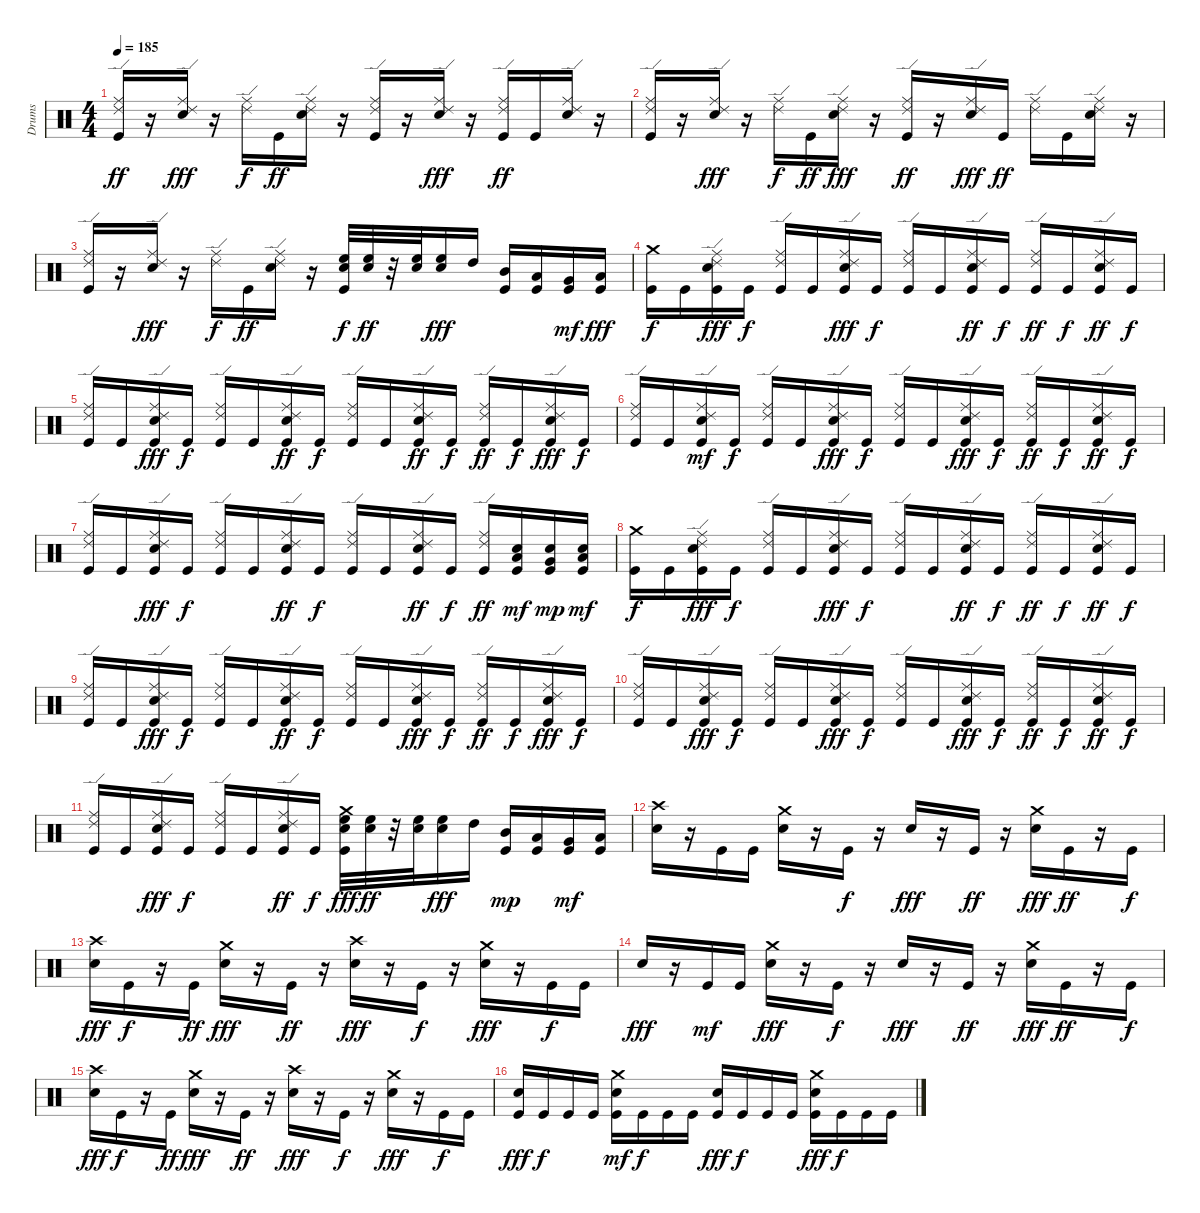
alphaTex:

\track ("Drums" "Drums") {instrument percussion}
\staff {score}
\articulation defaults
\ts (4 4)
\tempo 185
\clef neutral
\ks c
("Ride (edge) 2" "Ride (middle)" "Kick (hit)").16{dy ff} r.16 ("Electric Snare (hit)" "Ride (middle)" "Ride (edge) 2").16{dy fff} r.16 ("Ride (edge) 2" "Ride (middle)").16{dy f} "Kick (hit)".16{dy ff} ("Ride (edge) 2" "Electric Snare (hit)" "Ride (middle)").16 r.16 ("Ride (middle)" "Kick (hit)" "Ride (edge) 2").16 r.16 ("Ride (middle)" "Ride (edge) 2" "Electric Snare (hit)").16{dy fff} r.16 ("Kick (hit)" "Ride (edge) 2" "Ride (middle)").16{dy ff} "Kick (hit)".16 ("Electric Snare (hit)" "Ride (edge) 2" "Ride (middle)").16 r.16 |
("Kick (hit)" "Ride (edge) 2" "Ride (middle)").16 r.16 ("Ride (edge) 2" "Ride (middle)" "Electric Snare (hit)").16{dy fff} r.16 ("Ride (edge) 2" "Ride (middle)").16{dy f} "Kick (hit)".16{dy ff} ("Ride (middle)" "Ride (edge) 2" "Electric Snare (hit)").16{dy fff} r.16 ("Ride (middle)" "Ride (edge) 2" "Kick (hit)").16{dy ff} r.16 ("Ride (middle)" "Ride (edge) 2" "Electric Snare (hit)").16{dy fff} "Kick (hit)".16{dy ff} ("Ride (middle)" "Ride (edge) 2").16 "Kick (hit)".16 ("Ride (edge) 2" "Electric Snare (hit)" "Ride (middle)").16 r.16 |
("Kick (hit)" "Ride (middle)" "Ride (edge) 2").16 r.16 ("Electric Snare (hit)" "Ride (middle)" "Ride (edge) 2").16{dy fff} r.16 ("Ride (edge) 2" "Ride (middle)").16{dy f} "Kick (hit)".16{dy ff} ("Ride (middle)" "Electric Snare (hit)" "Ride (edge) 2").16 r.16 ("Electric Snare (hit)" "High Floor Tom (hit)" "Kick (hit)").32{dy f} ("Electric Snare (hit)" "High Floor Tom (hit)").32{dy ff} r.32 ("Electric Snare (hit)" "High Floor Tom (hit)").32 ("Electric Snare (hit)" "High Floor Tom (hit)").16{dy fff} "High Tom (hit)".16 ("Kick (hit)" "Mid Tom (hit)").16 ("Kick (hit)" "Low Tom (hit)").16 ("Very Low Tom (hit)" "Kick (hit)").16{dy mf} ("Kick (hit)" "Low Floor Tom (hit)").16{dy fff} |
("Kick (hit)" "Crash medium (hit)").16{dy f} "Kick (hit)".16 ("Ride (edge) 2" "Ride (middle)" "Electric Snare (hit)" "Kick (hit)").16{dy fff} "Kick (hit)".16{dy f} ("Ride (middle)" "Ride (edge) 2" "Kick (hit)").16 "Kick (hit)".16 ("Kick (hit)" "Ride (middle)" "Ride (edge) 2" "Electric Snare (hit)").16{dy fff} "Kick (hit)".16{dy f} ("Ride (middle)" "Ride (edge) 2" "Kick (hit)").16 "Kick (hit)".16 ("Electric Snare (hit)" "Ride (edge) 2" "Ride (middle)" "Kick (hit)").16{dy ff} "Kick (hit)".16{dy f} ("Kick (hit)" "Ride (middle)" "Ride (edge) 2").16{dy ff} "Kick (hit)".16{dy f} ("Kick (hit)" "Ride (middle)" "Electric Snare (hit)" "Ride (edge) 2").16{dy ff} "Kick (hit)".16{dy f} |
("Ride (middle)" "Ride (edge) 2" "Kick (hit)").16 "Kick (hit)".16 ("Electric Snare (hit)" "Ride (middle)" "Ride (edge) 2" "Kick (hit)").16{dy fff} "Kick (hit)".16{dy f} ("Kick (hit)" "Ride (middle)" "Ride (edge) 2").16 "Kick (hit)".16 ("Ride (middle)" "Electric Snare (hit)" "Ride (edge) 2" "Kick (hit)").16{dy ff} "Kick (hit)".16{dy f} ("Ride (edge) 2" "Ride (middle)" "Kick (hit)").16 "Kick (hit)".16 ("Kick (hit)" "Electric Snare (hit)" "Ride (edge) 2" "Ride (middle)").16{dy ff} "Kick (hit)".16{dy f} ("Kick (hit)" "Ride (edge) 2" "Ride (middle)").16{dy ff} "Kick (hit)".16{dy f} ("Ride (middle)" "Ride (edge) 2" "Electric Snare (hit)" "Kick (hit)").16{dy fff} "Kick (hit)".16{dy f} |
("Kick (hit)" "Ride (edge) 2" "Ride (middle)").16 "Kick (hit)".16 ("Kick (hit)" "Electric Snare (hit)" "Ride (middle)" "Ride (edge) 2").16{dy mf} "Kick (hit)".16{dy f} ("Kick (hit)" "Ride (edge) 2" "Ride (middle)").16 "Kick (hit)".16 ("Kick (hit)" "Ride (middle)" "Ride (edge) 2" "Electric Snare (hit)").16{dy fff} "Kick (hit)".16{dy f} ("Kick (hit)" "Ride (edge) 2" "Ride (middle)").16 "Kick (hit)".16 ("Kick (hit)" "Ride (middle)" "Ride (edge) 2" "Electric Snare (hit)").16{dy fff} "Kick (hit)".16{dy f} ("Kick (hit)" "Ride (middle)" "Ride (edge) 2").16{dy ff} "Kick (hit)".16{dy f} ("Ride (edge) 2" "Electric Snare (hit)" "Ride (middle)" "Kick (hit)").16{dy ff} "Kick (hit)".16{dy f} |
("Kick (hit)" "Ride (edge) 2" "Ride (middle)").16 "Kick (hit)".16 ("Kick (hit)" "Ride (edge) 2" "Ride (middle)" "Electric Snare (hit)").16{dy fff} "Kick (hit)".16{dy f} ("Kick (hit)" "Ride (middle)" "Ride (edge) 2").16 "Kick (hit)".16 ("Kick (hit)" "Ride (edge) 2" "Electric Snare (hit)" "Ride (middle)").16{dy ff} "Kick (hit)".16{dy f} ("Kick (hit)" "Ride (middle)" "Ride (edge) 2").16 "Kick (hit)".16 ("Kick (hit)" "Electric Snare (hit)" "Ride (edge) 2" "Ride (middle)").16{dy ff} "Kick (hit)".16{dy f} ("Ride (middle)" "Ride (edge) 2" "Kick (hit)").16{dy ff} ("Electric Snare (hit)" "Low Tom (hit)" "Kick (hit)").16{dy mf} ("Electric Snare (hit)" "Kick (hit)" "Very Low Tom (hit)").16{dy mp} ("Kick (hit)" "Low Floor Tom (hit)" "Electric Snare (hit)").16{dy mf} |
("Crash medium (hit)" "Kick (hit)").16{dy f} "Kick (hit)".16 ("Ride (edge) 2" "Ride (middle)" "Electric Snare (hit)" "Kick (hit)").16{dy fff} "Kick (hit)".16{dy f} ("Ride (middle)" "Ride (edge) 2" "Kick (hit)").16 "Kick (hit)".16 ("Electric Snare (hit)" "Ride (edge) 2" "Ride (middle)" "Kick (hit)").16{dy fff} "Kick (hit)".16{dy f} ("Kick (hit)" "Ride (edge) 2" "Ride (middle)").16 "Kick (hit)".16 ("Electric Snare (hit)" "Ride (edge) 2" "Ride (middle)" "Kick (hit)").16{dy ff} "Kick (hit)".16{dy f} ("Ride (edge) 2" "Ride (middle)" "Kick (hit)").16{dy ff} "Kick (hit)".16{dy f} ("Ride (edge) 2" "Electric Snare (hit)" "Ride (middle)" "Kick (hit)").16{dy ff} "Kick (hit)".16{dy f} |
("Ride (middle)" "Ride (edge) 2" "Kick (hit)").16 "Kick (hit)".16 ("Electric Snare (hit)" "Ride (middle)" "Ride (edge) 2" "Kick (hit)").16{dy fff} "Kick (hit)".16{dy f} ("Ride (edge) 2" "Ride (middle)" "Kick (hit)").16 "Kick (hit)".16 ("Kick (hit)" "Ride (edge) 2" "Electric Snare (hit)" "Ride (middle)").16{dy ff} "Kick (hit)".16{dy f} ("Ride (edge) 2" "Ride (middle)" "Kick (hit)").16 "Kick (hit)".16 ("Ride (middle)" "Ride (edge) 2" "Electric Snare (hit)" "Kick (hit)").16{dy fff} "Kick (hit)".16{dy f} ("Ride (middle)" "Ride (edge) 2" "Kick (hit)").16{dy ff} "Kick (hit)".16{dy f} ("Ride (middle)" "Ride (edge) 2" "Electric Snare (hit)" "Kick (hit)").16{dy fff} "Kick (hit)".16{dy f} |
("Kick (hit)" "Ride (edge) 2" "Ride (middle)").16 "Kick (hit)".16 ("Ride (edge) 2" "Ride (middle)" "Electric Snare (hit)" "Kick (hit)").16{dy fff} "Kick (hit)".16{dy f} ("Ride (middle)" "Ride (edge) 2" "Kick (hit)").16 "Kick (hit)".16 ("Electric Snare (hit)" "Ride (edge) 2" "Ride (middle)" "Kick (hit)").16{dy fff} "Kick (hit)".16{dy f} ("Ride (middle)" "Ride (edge) 2" "Kick (hit)").16 "Kick (hit)".16 ("Kick (hit)" "Ride (middle)" "Ride (edge) 2" "Electric Snare (hit)").16{dy fff} "Kick (hit)".16{dy f} ("Ride (edge) 2" "Ride (middle)" "Kick (hit)").16{dy ff} "Kick (hit)".16{dy f} ("Kick (hit)" "Ride (middle)" "Electric Snare (hit)" "Ride (edge) 2").16{dy ff} "Kick (hit)".16{dy f} |
("Ride (middle)" "Ride (edge) 2" "Kick (hit)").16 "Kick (hit)".16 ("Electric Snare (hit)" "Ride (middle)" "Ride (edge) 2" "Kick (hit)").16{dy fff} "Kick (hit)".16{dy f} ("Ride (edge) 2" "Ride (middle)" "Kick (hit)").16 "Kick (hit)".16 ("Ride (middle)" "Electric Snare (hit)" "Ride (edge) 2" "Kick (hit)").16{dy ff} "Kick (hit)".16{dy f} ("Crash medium (hit)" "Kick (hit)" "High Floor Tom (hit)" "Electric Snare (hit)").32{dy fff} ("High Floor Tom (hit)" "Electric Snare (hit)").32{dy ff} r.32 ("High Floor Tom (hit)" "Electric Snare (hit)").32 ("High Floor Tom (hit)" "Electric Snare (hit)").16{dy fff} "High Tom (hit)".16 ("Mid Tom (hit)" "Kick (hit)").16{dy mp} ("Low Tom (hit)" "Kick (hit)").16 ("Very Low Tom (hit)" "Kick (hit)").16{dy mf} ("Low Floor Tom (hit)" "Kick (hit)").16 |
("Electric Snare (hit)" "Crash high (hit)").16 r.16 "Kick (hit)".16 "Kick (hit)".16 ("Electric Snare (hit)" "Crash medium (hit)").16 r.16 "Kick (hit)".16{dy f} r.16 "Electric Snare (hit)".16{dy fff} r.16 "Kick (hit)".16{dy ff} r.16 ("Crash medium (hit)" "Electric Snare (hit)").16{dy fff} "Kick (hit)".16{dy ff} r.16 "Kick (hit)".16{dy f} |
("Crash high (hit)" "Electric Snare (hit)").16{dy fff} "Kick (hit)".16{dy f} r.16 "Kick (hit)".16{dy ff} ("Crash medium (hit)" "Electric Snare (hit)").16{dy fff} r.16 "Kick (hit)".16{dy ff} r.16 ("Crash high (hit)" "Electric Snare (hit)").16{dy fff} r.16 "Kick (hit)".16{dy f} r.16 ("Crash medium (hit)" "Electric Snare (hit)").16{dy fff} r.16 "Kick (hit)".16{dy f} "Kick (hit)".16 |
"Electric Snare (hit)".16{dy fff} r.16 "Kick (hit)".16{dy mf} "Kick (hit)".16 ("Crash medium (hit)" "Electric Snare (hit)").16{dy fff} r.16 "Kick (hit)".16{dy f} r.16 "Electric Snare (hit)".16{dy fff} r.16 "Kick (hit)".16{dy ff} r.16 ("Crash medium (hit)" "Electric Snare (hit)").16{dy fff} "Kick (hit)".16{dy ff} r.16 "Kick (hit)".16{dy f} |
("Crash high (hit)" "Electric Snare (hit)").16{dy fff} "Kick (hit)".16{dy f} r.16 "Kick (hit)".16{dy ff} ("Crash medium (hit)" "Electric Snare (hit)").16{dy fff} r.16 "Kick (hit)".16{dy ff} r.16 ("Crash high (hit)" "Electric Snare (hit)").16{dy fff} r.16 "Kick (hit)".16{dy f} r.16 ("Crash medium (hit)" "Electric Snare (hit)").16{dy fff} r.16 "Kick (hit)".16{dy f} "Kick (hit)".16 |
("Kick (hit)" "Electric Snare (hit)").16{dy fff} "Kick (hit)".16{dy f} "Kick (hit)".16 "Kick (hit)".16 ("Electric Snare (hit)" "Kick (hit)" "Crash medium (hit)").16{dy mf} "Kick (hit)".16{dy f} "Kick (hit)".16 "Kick (hit)".16 ("Kick (hit)" "Electric Snare (hit)").16{dy fff} "Kick (hit)".16{dy f} "Kick (hit)".16 "Kick (hit)".16 ("Electric Snare (hit)" "Kick (hit)" "Crash medium (hit)").16{dy fff} "Kick (hit)".16{dy f} "Kick (hit)".16 "Kick (hit)".16
